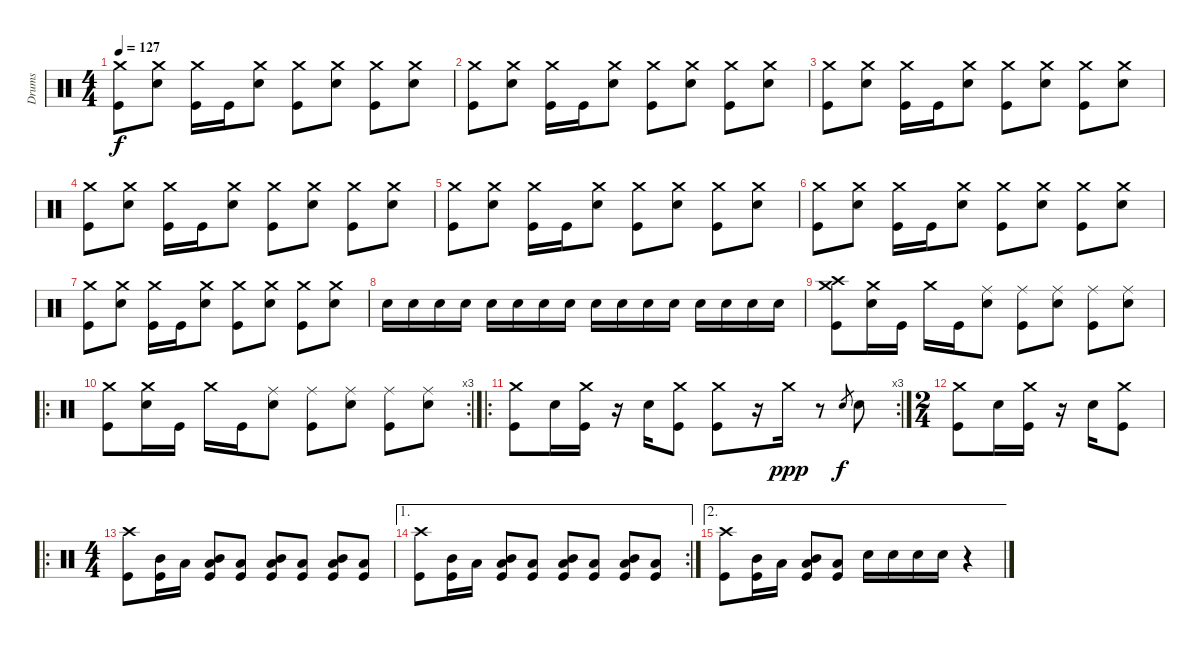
\track ("Drums" "Drums") {instrument percussion}
\staff {score}
\articulation defaults
\ts (4 4)
\tempo 127
\clef neutral
\ks c
("Crash medium (hit)" "Kick (hit)").8{dy f} ("Crash medium (hit)" "Electric Snare (hit)").8 ("Crash medium (hit)" "Kick (hit)").16 "Kick (hit)".16 ("Crash medium (hit)" "Electric Snare (hit)").8 ("Crash medium (hit)" "Kick (hit)").8 ("Crash medium (hit)" "Electric Snare (hit)").8 ("Crash medium (hit)" "Kick (hit)").8 ("Crash medium (hit)" "Electric Snare (hit)").8 |
("Crash medium (hit)" "Kick (hit)").8 ("Crash medium (hit)" "Electric Snare (hit)").8 ("Crash medium (hit)" "Kick (hit)").16 "Kick (hit)".16 ("Crash medium (hit)" "Electric Snare (hit)").8 ("Crash medium (hit)" "Kick (hit)").8 ("Crash medium (hit)" "Electric Snare (hit)").8 ("Crash medium (hit)" "Kick (hit)").8 ("Crash medium (hit)" "Electric Snare (hit)").8 |
("Crash medium (hit)" "Kick (hit)").8 ("Crash medium (hit)" "Electric Snare (hit)").8 ("Crash medium (hit)" "Kick (hit)").16 "Kick (hit)".16 ("Crash medium (hit)" "Electric Snare (hit)").8 ("Crash medium (hit)" "Kick (hit)").8 ("Crash medium (hit)" "Electric Snare (hit)").8 ("Crash medium (hit)" "Kick (hit)").8 ("Crash medium (hit)" "Electric Snare (hit)").8 |
("Crash medium (hit)" "Kick (hit)").8 ("Crash medium (hit)" "Electric Snare (hit)").8 ("Crash medium (hit)" "Kick (hit)").16 "Kick (hit)".16 ("Crash medium (hit)" "Electric Snare (hit)").8 ("Crash medium (hit)" "Kick (hit)").8 ("Crash medium (hit)" "Electric Snare (hit)").8 ("Crash medium (hit)" "Kick (hit)").8 ("Crash medium (hit)" "Electric Snare (hit)").8 |
("Crash medium (hit)" "Kick (hit)").8 ("Crash medium (hit)" "Electric Snare (hit)").8 ("Crash medium (hit)" "Kick (hit)").16 "Kick (hit)".16 ("Crash medium (hit)" "Electric Snare (hit)").8 ("Crash medium (hit)" "Kick (hit)").8 ("Crash medium (hit)" "Electric Snare (hit)").8 ("Crash medium (hit)" "Kick (hit)").8 ("Crash medium (hit)" "Electric Snare (hit)").8 |
("Crash medium (hit)" "Kick (hit)").8 ("Crash medium (hit)" "Electric Snare (hit)").8 ("Crash medium (hit)" "Kick (hit)").16 "Kick (hit)".16 ("Crash medium (hit)" "Electric Snare (hit)").8 ("Crash medium (hit)" "Kick (hit)").8 ("Crash medium (hit)" "Electric Snare (hit)").8 ("Crash medium (hit)" "Kick (hit)").8 ("Crash medium (hit)" "Electric Snare (hit)").8 |
("Crash medium (hit)" "Kick (hit)").8 ("Crash medium (hit)" "Electric Snare (hit)").8 ("Crash medium (hit)" "Kick (hit)").16 "Kick (hit)".16 ("Crash medium (hit)" "Electric Snare (hit)").8 ("Crash medium (hit)" "Kick (hit)").8 ("Crash medium (hit)" "Electric Snare (hit)").8 ("Crash medium (hit)" "Kick (hit)").8 ("Crash medium (hit)" "Electric Snare (hit)").8 |
"Electric Snare (hit)".16 "Electric Snare (hit)".16 "Electric Snare (hit)".16 "Electric Snare (hit)".16 "Electric Snare (hit)".16 "Electric Snare (hit)".16 "Electric Snare (hit)".16 "Electric Snare (hit)".16 "Electric Snare (hit)".16 "Electric Snare (hit)".16 "Electric Snare (hit)".16 "Electric Snare (hit)".16 "Electric Snare (hit)".16 "Electric Snare (hit)".16 "Electric Snare (hit)".16 "Electric Snare (hit)".16 |
("Crash high (hit)" "Crash medium (hit)" "Kick (hit)").8 ("Crash medium (hit)" "Electric Snare (hit)").16 "Kick (hit)".16 "Crash medium (hit)".16 "Kick (hit)".16 ("Ride (middle)" "Electric Snare (hit)").8 ("Ride (middle)" "Kick (hit)").8 ("Ride (middle)" "Electric Snare (hit)").8 ("Ride (middle)" "Kick (hit)").8 ("Ride (middle)" "Electric Snare (hit)").8 |
\ro
\rc 3
("Crash medium (hit)" "Kick (hit)").8 ("Crash medium (hit)" "Electric Snare (hit)").16 "Kick (hit)".16 "Crash medium (hit)".16 "Kick (hit)".16 ("Ride (middle)" "Electric Snare (hit)").8 ("Ride (middle)" "Kick (hit)").8 ("Ride (middle)" "Electric Snare (hit)").8 ("Ride (middle)" "Kick (hit)").8 ("Ride (middle)" "Electric Snare (hit)").8 |
\ro
\rc 3
("Crash medium (hit)" "Kick (hit)").8 "Electric Snare (hit)".16 ("Crash medium (hit)" "Kick (hit)").16 r.16 "Electric Snare (hit)".16 ("Crash medium (hit)" "Kick (hit)").8 ("Crash medium (hit)" "Kick (hit)").8 r.16 "Crash medium (hit)".16{dy ppp} r.8 "Electric Snare (hit)".8{gr dy f} "Electric Snare (hit)".8 |
\ts (2 4)
("Crash medium (hit)" "Kick (hit)").8 "Electric Snare (hit)".16 ("Crash medium (hit)" "Kick (hit)").16 r.16 "Electric Snare (hit)".16 ("Crash medium (hit)" "Kick (hit)").8 |
\ro
\ts (4 4)
("Crash high (hit)" "Kick (hit)").8 ("Mid Tom (hit)" "Kick (hit)").16 "Low Tom (hit)".16 ("Mid Tom (hit)" "Low Tom (hit)" "Kick (hit)").8 ("Low Tom (hit)" "Kick (hit)").8 ("Mid Tom (hit)" "Low Tom (hit)" "Kick (hit)").8 ("Low Tom (hit)" "Kick (hit)").8 ("Mid Tom (hit)" "Low Tom (hit)" "Kick (hit)").8 ("Low Tom (hit)" "Kick (hit)").8 |
\ae 1
\rc 2
("Crash high (hit)" "Kick (hit)").8 ("Mid Tom (hit)" "Kick (hit)").16 "Low Tom (hit)".16 ("Mid Tom (hit)" "Low Tom (hit)" "Kick (hit)").8 ("Low Tom (hit)" "Kick (hit)").8 ("Mid Tom (hit)" "Low Tom (hit)" "Kick (hit)").8 ("Low Tom (hit)" "Kick (hit)").8 ("Mid Tom (hit)" "Low Tom (hit)" "Kick (hit)").8 ("Low Tom (hit)" "Kick (hit)").8 |
\ae 2
("Crash high (hit)" "Kick (hit)").8 ("Mid Tom (hit)" "Kick (hit)").16 "Low Tom (hit)".16 ("Mid Tom (hit)" "Low Tom (hit)" "Kick (hit)").8 ("Low Tom (hit)" "Kick (hit)").8 "Electric Snare (hit)".16 "Electric Snare (hit)".16 "Electric Snare (hit)".16 "Electric Snare (hit)".16 r.4
